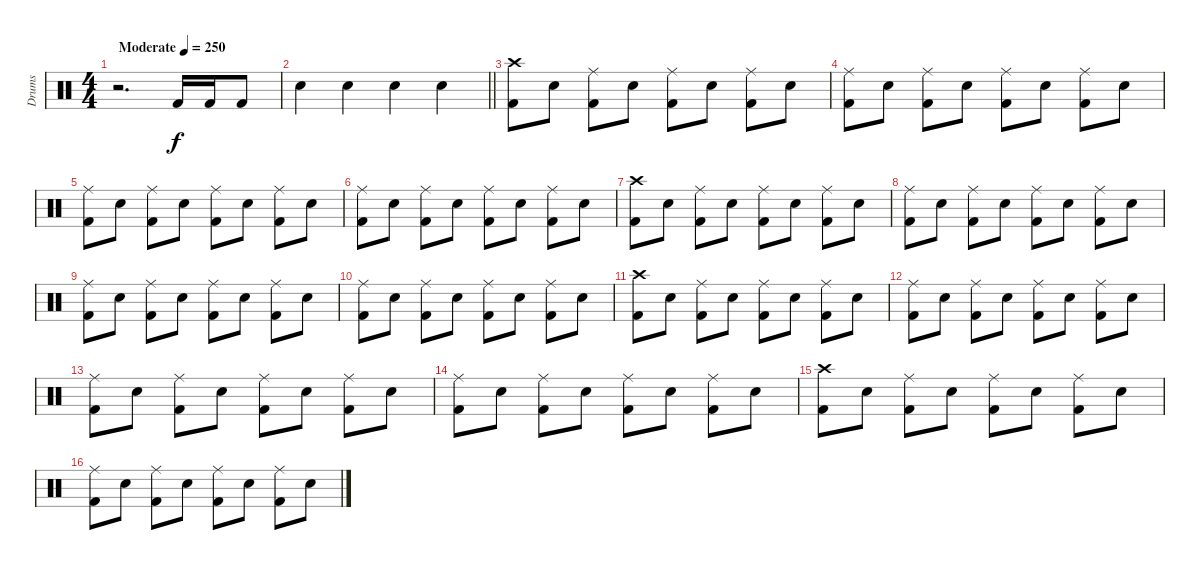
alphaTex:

\track ("Drums" "Drums") {instrument percussion}
\staff {score}
\articulation defaults
\ts (4 4)
\tempo (250 "Moderate")
\clef neutral
\ks c
r.2{d dy f} "Kick (hit) 2".16 "Kick (hit) 2".16 "Kick (hit) 2".8 |
\barLineRight lightlight "Electric Snare (hit)".4 "Electric Snare (hit)".4 "Electric Snare (hit)".4 "Electric Snare (hit)".4
|
("Crash high (hit)" "Kick (hit) 2").8 "Electric Snare (hit)".8 ("Ride (middle)" "Kick (hit) 2").8 "Electric Snare (hit)".8 ("Ride (middle)" "Kick (hit) 2").8 "Electric Snare (hit)".8 ("Ride (middle)" "Kick (hit) 2").8 "Electric Snare (hit)".8 |
("Ride (middle)" "Kick (hit) 2").8 "Electric Snare (hit)".8 ("Ride (middle)" "Kick (hit) 2").8 "Electric Snare (hit)".8 ("Ride (middle)" "Kick (hit) 2").8 "Electric Snare (hit)".8 ("Ride (middle)" "Kick (hit) 2").8 "Electric Snare (hit)".8 |
("Ride (middle)" "Kick (hit) 2").8 "Electric Snare (hit)".8 ("Ride (middle)" "Kick (hit) 2").8 "Electric Snare (hit)".8 ("Ride (middle)" "Kick (hit) 2").8 "Electric Snare (hit)".8 ("Ride (middle)" "Kick (hit) 2").8 "Electric Snare (hit)".8 |
("Ride (middle)" "Kick (hit) 2").8 "Electric Snare (hit)".8 ("Ride (middle)" "Kick (hit) 2").8 "Electric Snare (hit)".8 ("Ride (middle)" "Kick (hit) 2").8 "Electric Snare (hit)".8 ("Ride (middle)" "Kick (hit) 2").8 "Electric Snare (hit)".8 |
("Crash high (hit)" "Kick (hit) 2").8 "Electric Snare (hit)".8 ("Ride (middle)" "Kick (hit) 2").8 "Electric Snare (hit)".8 ("Ride (middle)" "Kick (hit) 2").8 "Electric Snare (hit)".8 ("Ride (middle)" "Kick (hit) 2").8 "Electric Snare (hit)".8 |
("Ride (middle)" "Kick (hit) 2").8 "Electric Snare (hit)".8 ("Ride (middle)" "Kick (hit) 2").8 "Electric Snare (hit)".8 ("Ride (middle)" "Kick (hit) 2").8 "Electric Snare (hit)".8 ("Ride (middle)" "Kick (hit) 2").8 "Electric Snare (hit)".8 |
("Ride (middle)" "Kick (hit) 2").8 "Electric Snare (hit)".8 ("Ride (middle)" "Kick (hit) 2").8 "Electric Snare (hit)".8 ("Ride (middle)" "Kick (hit) 2").8 "Electric Snare (hit)".8 ("Ride (middle)" "Kick (hit) 2").8 "Electric Snare (hit)".8 |
("Ride (middle)" "Kick (hit) 2").8 "Electric Snare (hit)".8 ("Ride (middle)" "Kick (hit) 2").8 "Electric Snare (hit)".8 ("Ride (middle)" "Kick (hit) 2").8 "Electric Snare (hit)".8 ("Ride (middle)" "Kick (hit) 2").8 "Electric Snare (hit)".8 |
("Crash high (hit)" "Kick (hit) 2").8 "Electric Snare (hit)".8 ("Ride (middle)" "Kick (hit) 2").8 "Electric Snare (hit)".8 ("Ride (middle)" "Kick (hit) 2").8 "Electric Snare (hit)".8 ("Ride (middle)" "Kick (hit) 2").8 "Electric Snare (hit)".8 |
("Ride (middle)" "Kick (hit) 2").8 "Electric Snare (hit)".8 ("Ride (middle)" "Kick (hit) 2").8 "Electric Snare (hit)".8 ("Ride (middle)" "Kick (hit) 2").8 "Electric Snare (hit)".8 ("Ride (middle)" "Kick (hit) 2").8 "Electric Snare (hit)".8 |
("Ride (middle)" "Kick (hit) 2").8 "Electric Snare (hit)".8 ("Ride (middle)" "Kick (hit) 2").8 "Electric Snare (hit)".8 ("Ride (middle)" "Kick (hit) 2").8 "Electric Snare (hit)".8 ("Ride (middle)" "Kick (hit) 2").8 "Electric Snare (hit)".8 |
("Ride (middle)" "Kick (hit) 2").8 "Electric Snare (hit)".8 ("Ride (middle)" "Kick (hit) 2").8 "Electric Snare (hit)".8 ("Ride (middle)" "Kick (hit) 2").8 "Electric Snare (hit)".8 ("Ride (middle)" "Kick (hit) 2").8 "Electric Snare (hit)".8 |
("Crash high (hit)" "Kick (hit) 2").8 "Electric Snare (hit)".8 ("Ride (middle)" "Kick (hit) 2").8 "Electric Snare (hit)".8 ("Ride (middle)" "Kick (hit) 2").8 "Electric Snare (hit)".8 ("Ride (middle)" "Kick (hit) 2").8 "Electric Snare (hit)".8 |
("Ride (middle)" "Kick (hit) 2").8 "Electric Snare (hit)".8 ("Ride (middle)" "Kick (hit) 2").8 "Electric Snare (hit)".8 ("Ride (middle)" "Kick (hit) 2").8 "Electric Snare (hit)".8 ("Ride (middle)" "Kick (hit) 2").8 "Electric Snare (hit)".8
